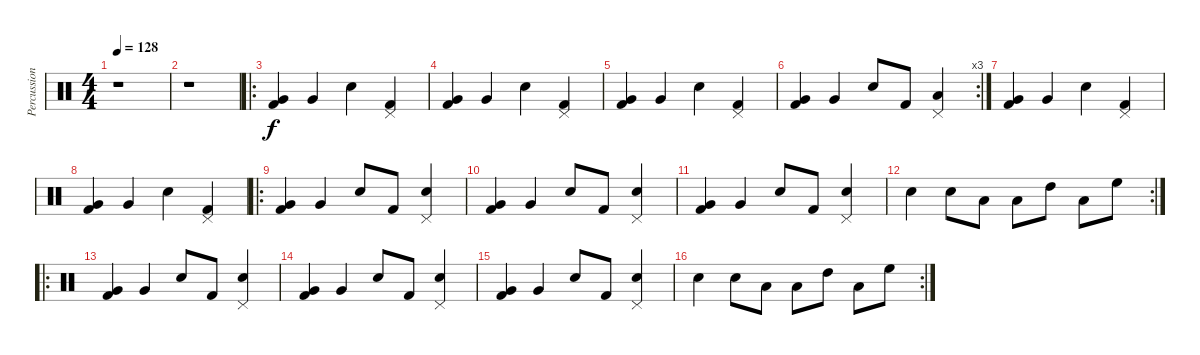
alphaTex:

\track ("Percussions" "Percussion") {instrument percussion}
\staff {score}
\articulation defaults
\ts (4 4)
\tempo 128
\clef neutral
\ks c
r.1{dy f} |
r.1 |
\ro
("Kick (hit) 2" "Very Low Tom (hit)").4 "Very Low Tom (hit)".4 "Snare (hit) 2".4 ("Kick (hit) 2" "Pedal Hi-Hat (hit)").4 |
("Kick (hit) 2" "Very Low Tom (hit)").4 "Very Low Tom (hit)".4 "Snare (hit) 2".4 ("Kick (hit) 2" "Pedal Hi-Hat (hit)").4 |
("Kick (hit) 2" "Very Low Tom (hit)").4 "Very Low Tom (hit)".4 "Snare (hit) 2".4 ("Kick (hit) 2" "Pedal Hi-Hat (hit)").4 |
\rc 3
("Kick (hit) 2" "Very Low Tom (hit)").4 "Very Low Tom (hit)".4 "Snare (hit) 2".8 "Kick (hit) 2".8 ("Low Tom (hit)" "Pedal Hi-Hat (hit)").4 |
("Kick (hit) 2" "Very Low Tom (hit)").4 "Very Low Tom (hit)".4 "Snare (hit) 2".4 ("Kick (hit) 2" "Pedal Hi-Hat (hit)").4 |
("Kick (hit) 2" "Very Low Tom (hit)").4 "Very Low Tom (hit)".4 "Snare (hit) 2".4 ("Kick (hit) 2" "Pedal Hi-Hat (hit)").4 |
\ro
("Kick (hit) 2" "Very Low Tom (hit)").4 "Very Low Tom (hit)".4 "Snare (hit) 2".8 "Kick (hit) 2".8 ("Snare (hit) 2" "Pedal Hi-Hat (hit)").4 |
("Kick (hit) 2" "Very Low Tom (hit)").4 "Very Low Tom (hit)".4 "Snare (hit) 2".8 "Kick (hit) 2".8 ("Snare (hit) 2" "Pedal Hi-Hat (hit)").4 |
("Kick (hit) 2" "Very Low Tom (hit)").4 "Very Low Tom (hit)".4 "Snare (hit) 2".8 "Kick (hit) 2".8 ("Snare (hit) 2" "Pedal Hi-Hat (hit)").4 |
\rc 2 "Snare (hit) 2".4 "Snare (hit) 2".8 "Low Tom (hit)".8 "Low Floor Tom (hit)".8 "High Tom (hit)".8 "Low Tom (hit)".8 "High Floor Tom (hit)".8
|
\ro
("Kick (hit) 2" "Very Low Tom (hit)").4 "Very Low Tom (hit)".4 "Snare (hit) 2".8 "Kick (hit) 2".8 ("Snare (hit) 2" "Pedal Hi-Hat (hit)").4 |
("Kick (hit) 2" "Very Low Tom (hit)").4 "Very Low Tom (hit)".4 "Snare (hit) 2".8 "Kick (hit) 2".8 ("Snare (hit) 2" "Pedal Hi-Hat (hit)").4 |
("Kick (hit) 2" "Very Low Tom (hit)").4 "Very Low Tom (hit)".4 "Snare (hit) 2".8 "Kick (hit) 2".8 ("Snare (hit) 2" "Pedal Hi-Hat (hit)").4 |
\rc 2 "Snare (hit) 2".4 "Snare (hit) 2".8 "Low Tom (hit)".8 "Low Floor Tom (hit)".8 "High Tom (hit)".8 "Low Tom (hit)".8 "High Floor Tom (hit)".8
